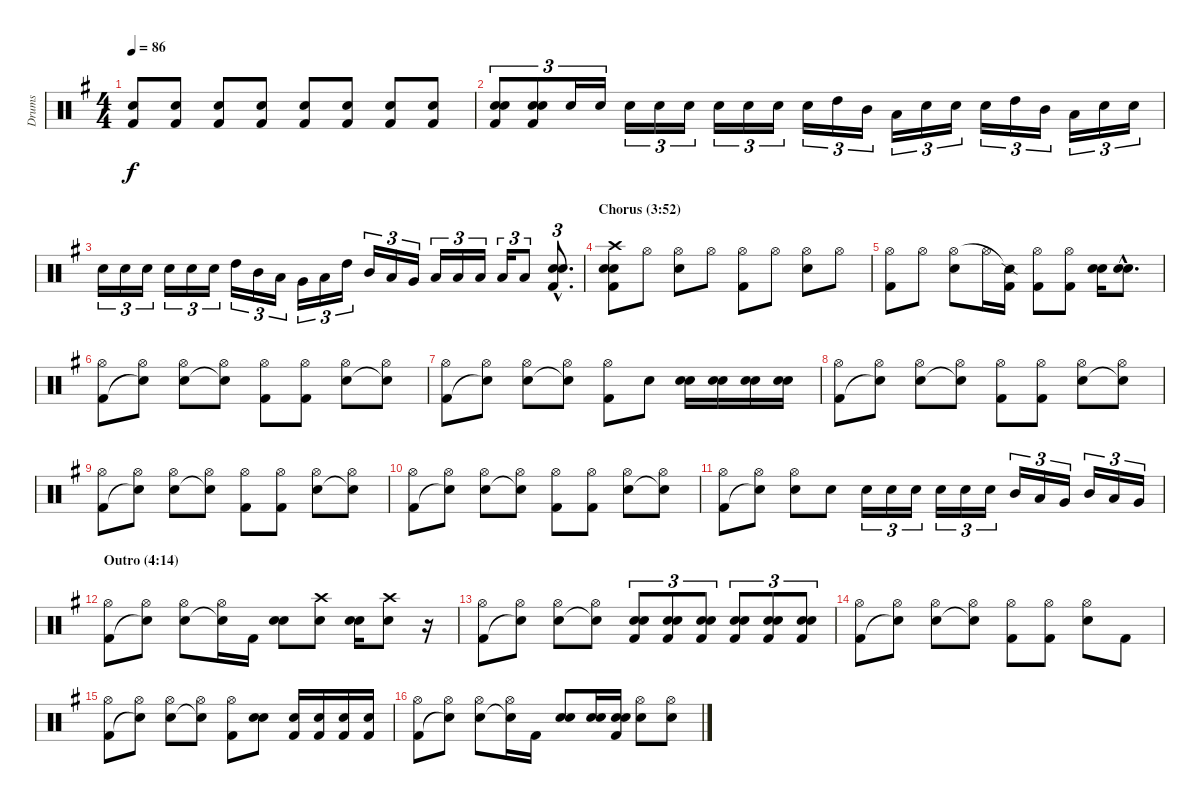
\track ("Drums" "Drums") {instrument percussion}
\staff {score}
\articulation defaults
\ts (4 4)
\tempo 86
\clef neutral
\ks eminor
("Kick (hit) 2" "Electric Snare (hit)").8{dy f} ("Kick (hit) 2" "Electric Snare (hit)").8 ("Kick (hit) 2" "Electric Snare (hit)").8 ("Kick (hit) 2" "Electric Snare (hit)").8 ("Kick (hit) 2" "Electric Snare (hit)").8 ("Kick (hit) 2" "Electric Snare (hit)").8 ("Kick (hit) 2" "Electric Snare (hit)").8 ("Kick (hit) 2" "Electric Snare (hit)").8 |
("Kick (hit) 2" "Snare (hit) 2" "Electric Snare (hit)").8{tu (3 2)} ("Kick (hit) 2" "Snare (hit) 2" "Electric Snare (hit)").8{tu (3 2)} "Snare (hit) 2".16{tu (3 2)} "Snare (hit) 2".16{tu (3 2)} "Snare (hit) 2".16{tu (3 2)} "Snare (hit) 2".16{tu (3 2)} "Electric Snare (hit)".16{tu (3 2)} "Snare (hit) 2".16{tu (3 2)} "Snare (hit) 2".16{tu (3 2)} "Snare (hit) 2".16{tu (3 2)} "Electric Snare (hit)".16{tu (3 2)} "High Tom (hit)".16{tu (3 2)} "Mid Tom (hit)".16{tu (3 2)} "Low Tom (hit)".16{tu (3 2)} "Snare (hit) 2".16{tu (3 2)} "Snare (hit) 2".16{tu (3 2)} "Snare (hit) 2".16{tu (3 2)} "High Tom (hit)".16{tu (3 2)} "Mid Tom (hit)".16{tu (3 2)} "Low Tom (hit)".16{tu (3 2)} "Snare (hit) 2".16{tu (3 2)} "Snare (hit) 2".16{tu (3 2)} |
"Snare (hit) 2".16{tu (3 2)} "Snare (hit) 2".16{tu (3 2)} "Snare (hit) 2".16{tu (3 2)} "Snare (hit) 2".16{tu (3 2)} "Snare (hit) 2".16{tu (3 2)} "Snare (hit) 2".16{tu (3 2)} "High Tom (hit)".16{tu (3 2)} "Mid Tom (hit)".16{tu (3 2)} "Low Tom (hit)".16{tu (3 2)} "Very Low Tom (hit)".16{tu (3 2)} "Low Floor Tom (hit)".16{tu (3 2)} "High Tom (hit)".16{tu (3 2)} "Mid Tom (hit)".16{tu (3 2)} "Low Tom (hit)".16{tu (3 2)} "Very Low Tom (hit)".16{tu (3 2)} "Low Floor Tom (hit)".16{tu (3 2)} "Low Floor Tom (hit)".16{tu (3 2)} "Low Floor Tom (hit)".16{tu (3 2)} "Low Floor Tom (hit)".16{tu (3 2)} "Low Floor Tom (hit)".8{tu (3 2)} ("Kick (hit) 2"{hac} "Electric Snare (hit)"{hac} "Electric Snare (hit)"{hac}).8{d tu (3 2)} |
\section ("" "Chorus (3:52)")
("Kick (hit) 2" "Electric Snare (hit)" "Electric Snare (hit)" "Crash high (hit)").8 "Hi-Hat (open)".8 ("Electric Snare (hit)" "Hi-Hat (open)").8 "Hi-Hat (open)".8 ("Kick (hit) 2" "Hi-Hat (open)").8 "Hi-Hat (open)".8 ("Electric Snare (hit)" "Hi-Hat (open)").8 "Hi-Hat (open)".8 |
("Kick (hit) 2" "Hi-Hat (open)").8 "Hi-Hat (open)".8 ("Electric Snare (hit)" "Hi-Hat (open)").8 "Hi-Hat (open)".16 ("Kick (hit) 2" "Snare (side stick) 2"{t}).16 ("Kick (hit) 2" "Hi-Hat (open)").8 ("Kick (hit) 2" "Hi-Hat (open)").8 ("Electric Snare (hit)" "Electric Snare (hit)").16 ("Electric Snare (hit)"{hac} "Electric Snare (hit)"{hac}).8{d} |
("Kick (hit) 2" "Hi-Hat (open)").8 ("Snare (hit)"{t} "Hi-Hat (open)").8 ("Electric Snare (hit)" "Hi-Hat (open)").8 ("Snare (hit)"{t} "Hi-Hat (open)").8 ("Kick (hit) 2" "Hi-Hat (open)").8 ("Kick (hit) 2" "Hi-Hat (open)").8 ("Electric Snare (hit)" "Hi-Hat (open)").8 ("Snare (hit)"{t} "Hi-Hat (open)").8 |
("Kick (hit) 2" "Hi-Hat (open)").8 ("Snare (hit)"{t} "Hi-Hat (open)").8 ("Electric Snare (hit)" "Hi-Hat (open)").8 ("Snare (hit)"{t} "Hi-Hat (open)").8 ("Kick (hit) 2" "Hi-Hat (open)").8 "Electric Snare (hit)".8 ("Electric Snare (hit)" "Electric Snare (hit)").16 ("Electric Snare (hit)" "Electric Snare (hit)").16 ("Electric Snare (hit)" "Electric Snare (hit)").16 ("Electric Snare (hit)" "Electric Snare (hit)").16 |
("Kick (hit) 2" "Hi-Hat (open)").8 ("Snare (hit)"{t} "Hi-Hat (open)").8 ("Electric Snare (hit)" "Hi-Hat (open)").8 ("Snare (hit)"{t} "Hi-Hat (open)").8 ("Kick (hit) 2" "Hi-Hat (open)").8 ("Kick (hit) 2" "Hi-Hat (open)").8 ("Electric Snare (hit)" "Hi-Hat (open)").8 ("Snare (hit)"{t} "Hi-Hat (open)").8 |
("Kick (hit) 2" "Hi-Hat (open)").8 ("Snare (hit)"{t} "Hi-Hat (open)").8 ("Electric Snare (hit)" "Hi-Hat (open)").8 ("Snare (hit)"{t} "Hi-Hat (open)").8 ("Kick (hit) 2" "Hi-Hat (open)").8 ("Kick (hit) 2" "Hi-Hat (open)").8 ("Electric Snare (hit)" "Hi-Hat (open)").8 ("Snare (hit)"{t} "Hi-Hat (open)").8 |
("Kick (hit) 2" "Hi-Hat (open)").8 ("Snare (hit)"{t} "Hi-Hat (open)").8 ("Electric Snare (hit)" "Hi-Hat (open)").8 ("Snare (hit)"{t} "Hi-Hat (open)").8 ("Kick (hit) 2" "Hi-Hat (open)").8 ("Kick (hit) 2" "Hi-Hat (open)").8 ("Electric Snare (hit)" "Hi-Hat (open)").8 ("Snare (hit)"{t} "Hi-Hat (open)").8 |
("Kick (hit) 2" "Hi-Hat (open)").8 ("Snare (hit)"{t} "Hi-Hat (open)").8 ("Electric Snare (hit)" "Hi-Hat (open)").8 "Electric Snare (hit)".8 "Electric Snare (hit)".16{tu (3 2)} "Electric Snare (hit)".16{tu (3 2)} "Electric Snare (hit)".16{tu (3 2)} "Electric Snare (hit)".16{tu (3 2)} "Electric Snare (hit)".16{tu (3 2)} "Electric Snare (hit)".16{tu (3 2)} "Mid Tom (hit)".16{tu (3 2)} "Low Tom (hit)".16{tu (3 2)} "Very Low Tom (hit)".16{tu (3 2)} "Mid Tom (hit)".16{tu (3 2)} "Low Tom (hit)".16{tu (3 2)} "Very Low Tom (hit)".16{tu (3 2)} |
\section ("" "Outro (4:14)")
("Kick (hit) 2" "Hi-Hat (open)").8 ("Snare (hit)"{t} "Hi-Hat (open)").8 ("Electric Snare (hit)" "Hi-Hat (open)").8 ("Snare (hit)"{t} "Hi-Hat (open)").16 "Kick (hit) 2".16 ("Electric Snare (hit)" "Electric Snare (hit)").8 ("Electric Snare (hit)" "Crash high (hit)").8 ("Electric Snare (hit)" "Electric Snare (hit)").16 ("Electric Snare (hit)" "Crash high (hit)").8 r.16 |
("Kick (hit) 2" "Hi-Hat (open)").8 ("Snare (hit)"{t} "Hi-Hat (open)").8 ("Electric Snare (hit)" "Hi-Hat (open)").8 ("Snare (hit)"{t} "Hi-Hat (open)").8 ("Kick (hit) 2" "Electric Snare (hit)" "Electric Snare (hit)").8{tu (3 2)} ("Kick (hit) 2" "Electric Snare (hit)" "Electric Snare (hit)").8{tu (3 2)} ("Kick (hit) 2" "Electric Snare (hit)" "Electric Snare (hit)").8{tu (3 2)} ("Kick (hit) 2" "Electric Snare (hit)" "Electric Snare (hit)").8{tu (3 2)} ("Kick (hit) 2" "Electric Snare (hit)" "Electric Snare (hit)").8{tu (3 2)} ("Kick (hit) 2" "Electric Snare (hit)" "Electric Snare (hit)").8{tu (3 2)} |
("Kick (hit) 2" "Hi-Hat (open)").8 ("Snare (hit)"{t} "Hi-Hat (open)").8 ("Electric Snare (hit)" "Hi-Hat (open)").8 ("Snare (hit)"{t} "Hi-Hat (open)").8 ("Kick (hit) 2" "Hi-Hat (open)").8 ("Kick (hit) 2" "Hi-Hat (open)").8 ("Electric Snare (hit)" "Hi-Hat (open)").8 "Kick (hit) 2".8 |
("Kick (hit) 2" "Hi-Hat (open)").8 ("Snare (hit)"{t} "Hi-Hat (open)").8 ("Electric Snare (hit)" "Hi-Hat (open)").8 ("Snare (hit)"{t} "Hi-Hat (open)").8 ("Kick (hit) 2" "Hi-Hat (open)").8 ("Electric Snare (hit)" "Electric Snare (hit)").8 ("Kick (hit) 2" "Electric Snare (hit)").16 ("Kick (hit) 2" "Electric Snare (hit)").16 ("Kick (hit) 2" "Electric Snare (hit)").16 ("Kick (hit) 2" "Electric Snare (hit)").16 |
("Kick (hit) 2" "Hi-Hat (open)").8 ("Snare (hit)"{t} "Hi-Hat (open)").8 ("Electric Snare (hit)" "Hi-Hat (open)").8 ("Snare (hit)"{t} "Hi-Hat (open)").16 "Kick (hit) 2".16 ("Electric Snare (hit)" "Electric Snare (hit)").8 ("Electric Snare (hit)" "Electric Snare (hit)").16 ("Kick (hit) 2" "Electric Snare (hit)" "Electric Snare (hit)").16 ("Electric Snare (hit)" "Hi-Hat (open)").8 ("Electric Snare (hit)" "Hi-Hat (open)").8
